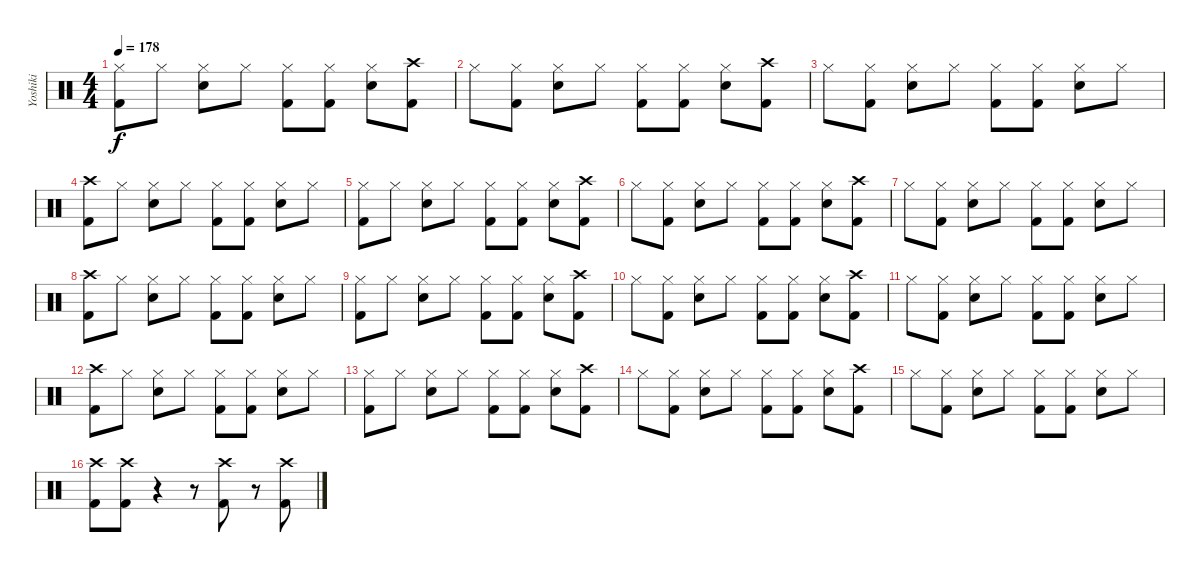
\track ("Yoshiki" "Yoshiki") {instrument percussion}
\staff {score}
\articulation defaults
\ts (4 4)
\tempo 178
\clef neutral
\ks c
("Hi-Hat (closed)" "Kick (hit) 2").8{dy f} "Hi-Hat (closed)".8 ("Hi-Hat (closed)" "Snare (hit) 2").8 "Hi-Hat (closed)".8 ("Hi-Hat (closed)" "Kick (hit) 2").8 ("Hi-Hat (closed)" "Kick (hit) 2").8 ("Hi-Hat (closed)" "Snare (hit) 2").8 ("Crash high (hit)" "Kick (hit) 2").8 |
"Hi-Hat (closed)".8 ("Hi-Hat (closed)" "Kick (hit) 2").8 ("Hi-Hat (closed)" "Snare (hit) 2").8 "Hi-Hat (closed)".8 ("Hi-Hat (closed)" "Kick (hit) 2").8 ("Hi-Hat (closed)" "Kick (hit) 2").8 ("Hi-Hat (closed)" "Snare (hit) 2").8 ("Crash high (hit)" "Kick (hit) 2").8 |
"Hi-Hat (closed)".8 ("Hi-Hat (closed)" "Kick (hit) 2").8 ("Hi-Hat (closed)" "Snare (hit) 2").8 "Hi-Hat (closed)".8 ("Hi-Hat (closed)" "Kick (hit) 2").8 ("Hi-Hat (closed)" "Kick (hit) 2").8 ("Hi-Hat (closed)" "Snare (hit) 2").8 "Hi-Hat (closed)".8 |
("Crash high (hit)" "Kick (hit) 2").8 "Hi-Hat (closed)".8 ("Hi-Hat (closed)" "Snare (hit) 2").8 "Hi-Hat (closed)".8 ("Hi-Hat (closed)" "Kick (hit) 2").8 ("Hi-Hat (closed)" "Kick (hit) 2").8 ("Hi-Hat (closed)" "Snare (hit) 2").8 "Hi-Hat (closed)".8 |
("Hi-Hat (closed)" "Kick (hit) 2").8 "Hi-Hat (closed)".8 ("Hi-Hat (closed)" "Snare (hit) 2").8 "Hi-Hat (closed)".8 ("Hi-Hat (closed)" "Kick (hit) 2").8 ("Hi-Hat (closed)" "Kick (hit) 2").8 ("Hi-Hat (closed)" "Snare (hit) 2").8 ("Crash high (hit)" "Kick (hit) 2").8 |
"Hi-Hat (closed)".8 ("Hi-Hat (closed)" "Kick (hit) 2").8 ("Hi-Hat (closed)" "Snare (hit) 2").8 "Hi-Hat (closed)".8 ("Hi-Hat (closed)" "Kick (hit) 2").8 ("Hi-Hat (closed)" "Kick (hit) 2").8 ("Hi-Hat (closed)" "Snare (hit) 2").8 ("Crash high (hit)" "Kick (hit) 2").8 |
"Hi-Hat (closed)".8 ("Hi-Hat (closed)" "Kick (hit) 2").8 ("Hi-Hat (closed)" "Snare (hit) 2").8 "Hi-Hat (closed)".8 ("Hi-Hat (closed)" "Kick (hit) 2").8 ("Hi-Hat (closed)" "Kick (hit) 2").8 ("Hi-Hat (closed)" "Snare (hit) 2").8 "Hi-Hat (closed)".8 |
("Crash high (hit)" "Kick (hit) 2").8 "Hi-Hat (closed)".8 ("Hi-Hat (closed)" "Snare (hit) 2").8 "Hi-Hat (closed)".8 ("Hi-Hat (closed)" "Kick (hit) 2").8 ("Hi-Hat (closed)" "Kick (hit) 2").8 ("Hi-Hat (closed)" "Snare (hit) 2").8 "Hi-Hat (closed)".8 |
("Hi-Hat (closed)" "Kick (hit) 2").8 "Hi-Hat (closed)".8 ("Hi-Hat (closed)" "Snare (hit) 2").8 "Hi-Hat (closed)".8 ("Hi-Hat (closed)" "Kick (hit) 2").8 ("Hi-Hat (closed)" "Kick (hit) 2").8 ("Hi-Hat (closed)" "Snare (hit) 2").8 ("Crash high (hit)" "Kick (hit) 2").8 |
"Hi-Hat (closed)".8 ("Hi-Hat (closed)" "Kick (hit) 2").8 ("Hi-Hat (closed)" "Snare (hit) 2").8 "Hi-Hat (closed)".8 ("Hi-Hat (closed)" "Kick (hit) 2").8 ("Hi-Hat (closed)" "Kick (hit) 2").8 ("Hi-Hat (closed)" "Snare (hit) 2").8 ("Crash high (hit)" "Kick (hit) 2").8 |
"Hi-Hat (closed)".8 ("Hi-Hat (closed)" "Kick (hit) 2").8 ("Hi-Hat (closed)" "Snare (hit) 2").8 "Hi-Hat (closed)".8 ("Hi-Hat (closed)" "Kick (hit) 2").8 ("Hi-Hat (closed)" "Kick (hit) 2").8 ("Hi-Hat (closed)" "Snare (hit) 2").8 "Hi-Hat (closed)".8 |
("Crash high (hit)" "Kick (hit) 2").8 "Hi-Hat (closed)".8 ("Hi-Hat (closed)" "Snare (hit) 2").8 "Hi-Hat (closed)".8 ("Hi-Hat (closed)" "Kick (hit) 2").8 ("Hi-Hat (closed)" "Kick (hit) 2").8 ("Hi-Hat (closed)" "Snare (hit) 2").8 "Hi-Hat (closed)".8 |
("Hi-Hat (closed)" "Kick (hit) 2").8 "Hi-Hat (closed)".8 ("Hi-Hat (closed)" "Snare (hit) 2").8 "Hi-Hat (closed)".8 ("Hi-Hat (closed)" "Kick (hit) 2").8 ("Hi-Hat (closed)" "Kick (hit) 2").8 ("Hi-Hat (closed)" "Snare (hit) 2").8 ("Crash high (hit)" "Kick (hit) 2").8 |
"Hi-Hat (closed)".8 ("Hi-Hat (closed)" "Kick (hit) 2").8 ("Hi-Hat (closed)" "Snare (hit) 2").8 "Hi-Hat (closed)".8 ("Hi-Hat (closed)" "Kick (hit) 2").8 ("Hi-Hat (closed)" "Kick (hit) 2").8 ("Hi-Hat (closed)" "Snare (hit) 2").8 ("Crash high (hit)" "Kick (hit) 2").8 |
"Hi-Hat (closed)".8 ("Hi-Hat (closed)" "Kick (hit) 2").8 ("Hi-Hat (closed)" "Snare (hit) 2").8 "Hi-Hat (closed)".8 ("Hi-Hat (closed)" "Kick (hit) 2").8 ("Hi-Hat (closed)" "Kick (hit) 2").8 ("Hi-Hat (closed)" "Snare (hit) 2").8 "Hi-Hat (closed)".8 |
("Crash high (hit)" "Kick (hit) 2").8 ("Crash high (hit)" "Kick (hit) 2").8 r.4 r.8 ("Crash high (hit)" "Kick (hit) 2").8 r.8 ("Crash high (hit)" "Kick (hit) 2").8
